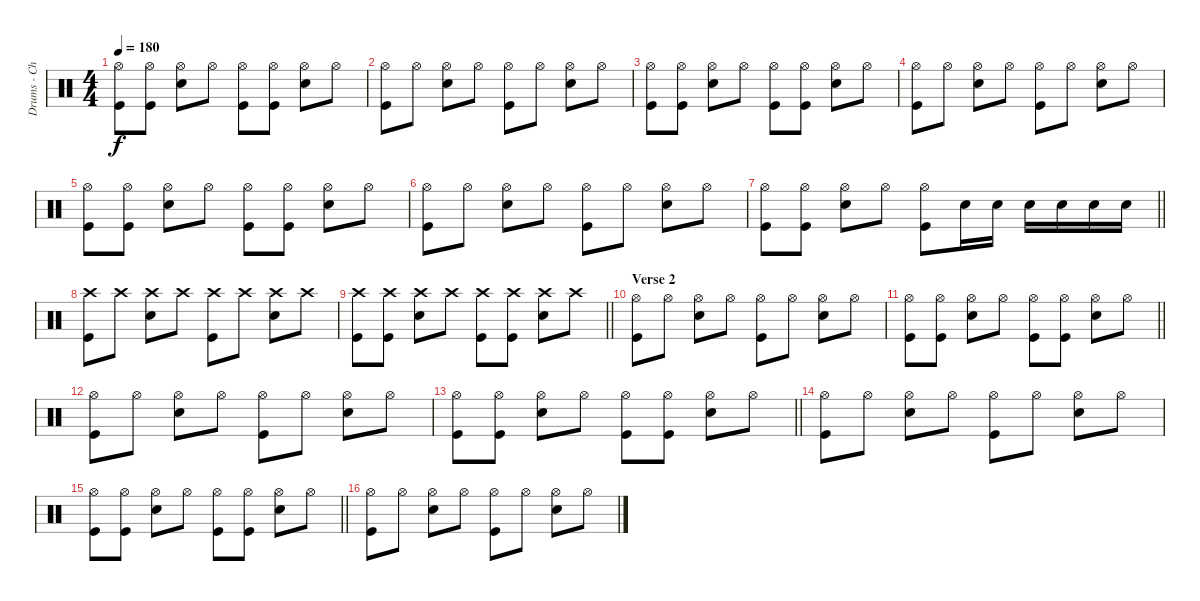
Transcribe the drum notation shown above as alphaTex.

\track ("Drums - Chris Dangerous" "Drums - Ch") {instrument percussion}
\staff {score}
\articulation defaults
\ts (4 4)
\tempo 180
\clef neutral
\ks c
("Hi-Hat (open)" "Kick (hit)").8{dy f} ("Hi-Hat (open)" "Kick (hit)").8 ("Hi-Hat (open)" "Snare (hit) 2").8 "Hi-Hat (open)".8 ("Hi-Hat (open)" "Kick (hit)").8 ("Hi-Hat (open)" "Kick (hit)").8 ("Hi-Hat (open)" "Snare (hit) 2").8 "Hi-Hat (open)".8 |
("Hi-Hat (open)" "Kick (hit)").8 "Hi-Hat (open)".8 ("Hi-Hat (open)" "Snare (hit) 2").8 "Hi-Hat (open)".8 ("Hi-Hat (open)" "Kick (hit)").8 "Hi-Hat (open)".8 ("Hi-Hat (open)" "Snare (hit) 2").8 "Hi-Hat (open)".8 |
("Hi-Hat (open)" "Kick (hit)").8 ("Hi-Hat (open)" "Kick (hit)").8 ("Hi-Hat (open)" "Snare (hit) 2").8 "Hi-Hat (open)".8 ("Hi-Hat (open)" "Kick (hit)").8 ("Hi-Hat (open)" "Kick (hit)").8 ("Hi-Hat (open)" "Snare (hit) 2").8 "Hi-Hat (open)".8 |
("Hi-Hat (open)" "Kick (hit)").8 "Hi-Hat (open)".8 ("Hi-Hat (open)" "Snare (hit) 2").8 "Hi-Hat (open)".8 ("Hi-Hat (open)" "Kick (hit)").8 "Hi-Hat (open)".8 ("Hi-Hat (open)" "Snare (hit) 2").8 "Hi-Hat (open)".8 |
("Hi-Hat (open)" "Kick (hit)").8 ("Hi-Hat (open)" "Kick (hit)").8 ("Hi-Hat (open)" "Snare (hit) 2").8 "Hi-Hat (open)".8 ("Hi-Hat (open)" "Kick (hit)").8 ("Hi-Hat (open)" "Kick (hit)").8 ("Hi-Hat (open)" "Snare (hit) 2").8 "Hi-Hat (open)".8 |
("Hi-Hat (open)" "Kick (hit)").8 "Hi-Hat (open)".8 ("Hi-Hat (open)" "Snare (hit) 2").8 "Hi-Hat (open)".8 ("Hi-Hat (open)" "Kick (hit)").8 "Hi-Hat (open)".8 ("Hi-Hat (open)" "Snare (hit) 2").8 "Hi-Hat (open)".8 |
\barLineRight lightlight
("Hi-Hat (open)" "Kick (hit)").8 ("Hi-Hat (open)" "Kick (hit)").8 ("Hi-Hat (open)" "Snare (hit) 2").8 "Hi-Hat (open)".8 ("Hi-Hat (open)" "Kick (hit)").8 "Snare (hit) 2".16 "Snare (hit) 2".16 "Snare (hit) 2".16 "Snare (hit) 2".16 "Snare (hit) 2".16 "Snare (hit) 2".16 |
\section ("" "")
("Crash high (hit)" "Kick (hit)").8 "Crash high (hit)".8 ("Crash high (hit)" "Snare (hit) 2").8 "Crash high (hit)".8 ("Crash high (hit)" "Kick (hit)").8 "Crash high (hit)".8 ("Crash high (hit)" "Snare (hit) 2").8 "Crash high (hit)".8 |
\barLineRight lightlight
("Crash high (hit)" "Kick (hit)").8 ("Crash high (hit)" "Kick (hit)").8 ("Crash high (hit)" "Snare (hit) 2").8 "Crash high (hit)".8 ("Crash high (hit)" "Kick (hit)").8 ("Crash high (hit)" "Kick (hit)").8 ("Crash high (hit)" "Snare (hit) 2").8 "Crash high (hit)".8 |
\section ("" "Verse 2")
("Hi-Hat (open)" "Kick (hit)").8 "Hi-Hat (open)".8 ("Hi-Hat (open)" "Snare (hit) 2").8 "Hi-Hat (open)".8 ("Hi-Hat (open)" "Kick (hit)").8 "Hi-Hat (open)".8 ("Hi-Hat (open)" "Snare (hit) 2").8 "Hi-Hat (open)".8 |
\barLineRight lightlight
("Hi-Hat (open)" "Kick (hit)").8 ("Hi-Hat (open)" "Kick (hit)").8 ("Hi-Hat (open)" "Snare (hit) 2").8 "Hi-Hat (open)".8 ("Hi-Hat (open)" "Kick (hit)").8 ("Hi-Hat (open)" "Kick (hit)").8 ("Hi-Hat (open)" "Snare (hit) 2").8 "Hi-Hat (open)".8 |
("Hi-Hat (open)" "Kick (hit)").8 "Hi-Hat (open)".8 ("Hi-Hat (open)" "Snare (hit) 2").8 "Hi-Hat (open)".8 ("Hi-Hat (open)" "Kick (hit)").8 "Hi-Hat (open)".8 ("Hi-Hat (open)" "Snare (hit) 2").8 "Hi-Hat (open)".8 |
\barLineRight lightlight
("Hi-Hat (open)" "Kick (hit)").8 ("Hi-Hat (open)" "Kick (hit)").8 ("Hi-Hat (open)" "Snare (hit) 2").8 "Hi-Hat (open)".8 ("Hi-Hat (open)" "Kick (hit)").8 ("Hi-Hat (open)" "Kick (hit)").8 ("Hi-Hat (open)" "Snare (hit) 2").8 "Hi-Hat (open)".8 |
("Hi-Hat (open)" "Kick (hit)").8 "Hi-Hat (open)".8 ("Hi-Hat (open)" "Snare (hit) 2").8 "Hi-Hat (open)".8 ("Hi-Hat (open)" "Kick (hit)").8 "Hi-Hat (open)".8 ("Hi-Hat (open)" "Snare (hit) 2").8 "Hi-Hat (open)".8 |
\barLineRight lightlight
("Hi-Hat (open)" "Kick (hit)").8 ("Hi-Hat (open)" "Kick (hit)").8 ("Hi-Hat (open)" "Snare (hit) 2").8 "Hi-Hat (open)".8 ("Hi-Hat (open)" "Kick (hit)").8 ("Hi-Hat (open)" "Kick (hit)").8 ("Hi-Hat (open)" "Snare (hit) 2").8 "Hi-Hat (open)".8 |
("Hi-Hat (open)" "Kick (hit)").8 "Hi-Hat (open)".8 ("Hi-Hat (open)" "Snare (hit) 2").8 "Hi-Hat (open)".8 ("Hi-Hat (open)" "Kick (hit)").8 "Hi-Hat (open)".8 ("Hi-Hat (open)" "Snare (hit) 2").8 "Hi-Hat (open)".8
